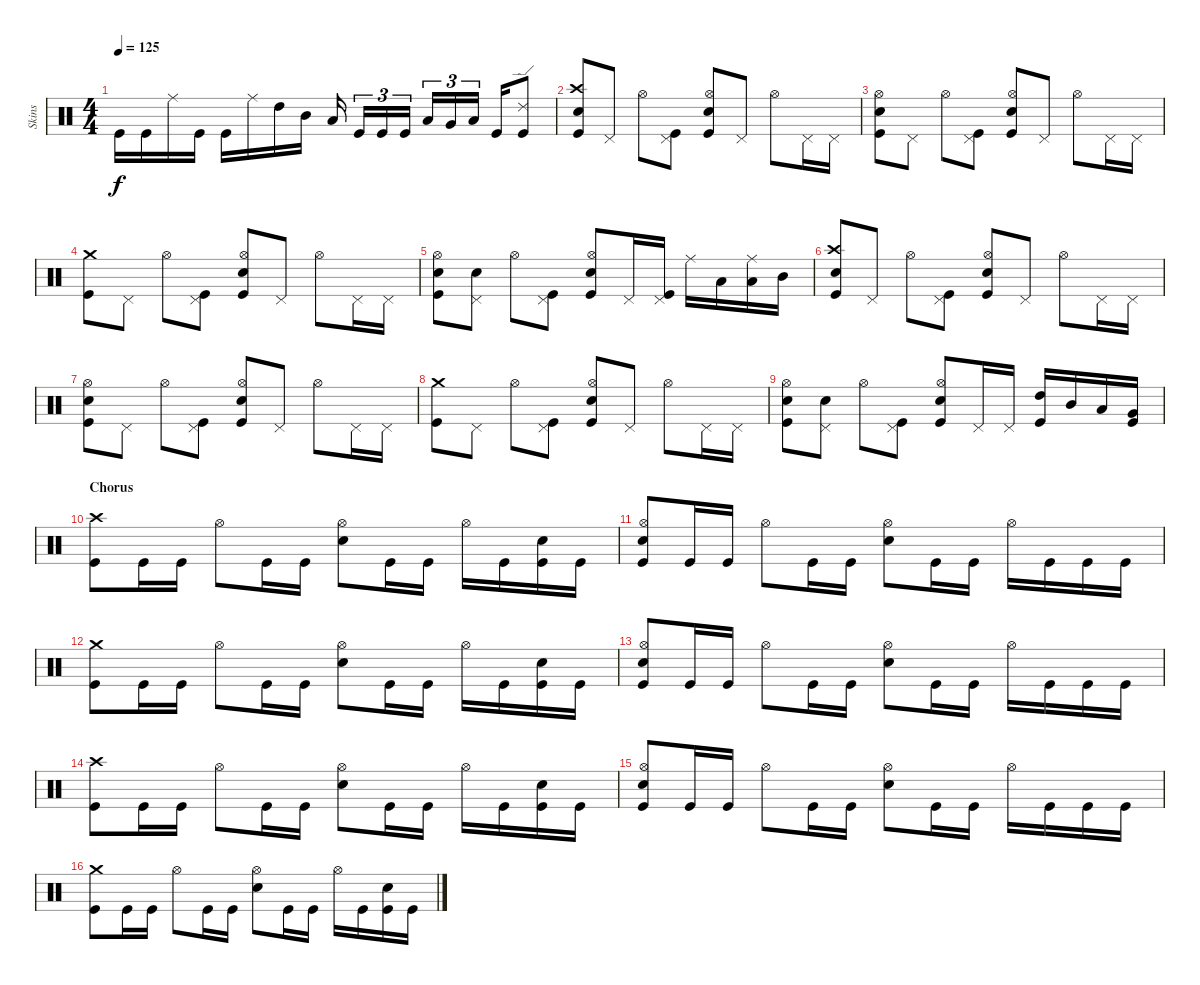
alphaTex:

\track ("Skins" "Skins") {instrument percussion}
\staff {score}
\articulation defaults
\ts (4 4)
\tempo 125
\clef neutral
\ks c "Kick (hit)".16{dy f} "Kick (hit)".16 "Ride (middle)".16 "Kick (hit)".16 "Kick (hit)".16 "Ride (middle)".16 "High Tom (hit)".16 "Mid Tom (hit)".16 "Low Tom (hit)".16 "Kick (hit)".16{tu (3 2)} "Kick (hit)".16{tu (3 2)} "Kick (hit)".16{tu (3 2)} "Low Tom (hit)".16{tu (3 2)} "Very Low Tom (hit)".16{tu (3 2)} "Low Floor Tom (hit)".16{tu (3 2)} "Kick (hit)".16
("Ride (edge) 2" "Kick (hit)").8 |
("Crash high (hit)" "Snare (hit) 2" "Kick (hit)").8 "Pedal Hi-Hat (hit)".8 "Hi-Hat (open)".8 ("Pedal Hi-Hat (hit)" "Kick (hit)").8 ("Hi-Hat (open)" "Electric Snare (hit)" "Kick (hit)").8 "Pedal Hi-Hat (hit)".8 "Hi-Hat (open)".8 "Pedal Hi-Hat (hit)".16 "Pedal Hi-Hat (hit)".16 |
("Hi-Hat (open)" "Snare (hit) 2" "Kick (hit)").8 "Pedal Hi-Hat (hit)".8 "Hi-Hat (open)".8 ("Pedal Hi-Hat (hit)" "Kick (hit)").8 ("Hi-Hat (open)" "Electric Snare (hit)" "Kick (hit)").8 "Pedal Hi-Hat (hit)".8 "Hi-Hat (open)".8 "Pedal Hi-Hat (hit)".16 "Pedal Hi-Hat (hit)".16 |
("Crash medium (hit)" "Kick (hit)").8 "Pedal Hi-Hat (hit)".8 "Hi-Hat (open)".8 ("Pedal Hi-Hat (hit)" "Kick (hit)").8 ("Hi-Hat (open)" "Electric Snare (hit)" "Kick (hit)").8 "Pedal Hi-Hat (hit)".8 "Hi-Hat (open)".8 "Pedal Hi-Hat (hit)".16 "Pedal Hi-Hat (hit)".16 |
("Hi-Hat (open)" "Snare (hit) 2" "Kick (hit)").8 ("Pedal Hi-Hat (hit)" "Snare (hit) 2").8 "Hi-Hat (open)".8 ("Pedal Hi-Hat (hit)" "Kick (hit)").8 ("Hi-Hat (open)" "Electric Snare (hit)" "Kick (hit)").8 "Pedal Hi-Hat (hit)".16 ("Pedal Hi-Hat (hit)" "Kick (hit)").16 "Ride (middle)".16 "Low Floor Tom (hit)".16 ("Ride (middle)" "Low Tom (hit)").16 "Mid Tom (hit)".16 |
("Crash high (hit)" "Snare (hit) 2" "Kick (hit)").8 "Pedal Hi-Hat (hit)".8 "Hi-Hat (open)".8 ("Pedal Hi-Hat (hit)" "Kick (hit)").8 ("Hi-Hat (open)" "Electric Snare (hit)" "Kick (hit)").8 "Pedal Hi-Hat (hit)".8 "Hi-Hat (open)".8 "Pedal Hi-Hat (hit)".16 "Pedal Hi-Hat (hit)".16 |
("Hi-Hat (open)" "Snare (hit) 2" "Kick (hit)").8 "Pedal Hi-Hat (hit)".8 "Hi-Hat (open)".8 ("Pedal Hi-Hat (hit)" "Kick (hit)").8 ("Hi-Hat (open)" "Electric Snare (hit)" "Kick (hit)").8 "Pedal Hi-Hat (hit)".8 "Hi-Hat (open)".8 "Pedal Hi-Hat (hit)".16 "Pedal Hi-Hat (hit)".16 |
("Crash medium (hit)" "Kick (hit)").8 "Pedal Hi-Hat (hit)".8 "Hi-Hat (open)".8 ("Pedal Hi-Hat (hit)" "Kick (hit)").8 ("Hi-Hat (open)" "Electric Snare (hit)" "Kick (hit)").8 "Pedal Hi-Hat (hit)".8 "Hi-Hat (open)".8 "Pedal Hi-Hat (hit)".16 "Pedal Hi-Hat (hit)".16 |
("Hi-Hat (open)" "Snare (hit) 2" "Kick (hit)").8 ("Pedal Hi-Hat (hit)" "Snare (hit) 2").8 "Hi-Hat (open)".8 ("Pedal Hi-Hat (hit)" "Kick (hit)").8 ("Hi-Hat (open)" "Electric Snare (hit)" "Kick (hit)").8 "Pedal Hi-Hat (hit)".16 "Pedal Hi-Hat (hit)".16 ("High Tom (hit)" "Kick (hit)").16 "Mid Tom (hit)".16 "Low Tom (hit)".16 ("Very Low Tom (hit)" "Kick (hit)").16 |
\section ("" "Chorus")
("Crash high (hit)" "Kick (hit)").8 "Kick (hit)".16 "Kick (hit)".16 "Hi-Hat (open)".8 "Kick (hit)".16 "Kick (hit)".16 ("Hi-Hat (open)" "Electric Snare (hit)").8 "Kick (hit)".16 "Kick (hit)".16 "Hi-Hat (open)".16 "Kick (hit)".16 ("Snare (hit) 2" "Kick (hit)").16 "Kick (hit)".16 |
("Hi-Hat (open)" "Electric Snare (hit)" "Kick (hit)").8 "Kick (hit)".16 "Kick (hit)".16 "Hi-Hat (open)".8 "Kick (hit)".16 "Kick (hit)".16 ("Hi-Hat (open)" "Electric Snare (hit)").8 "Kick (hit)".16 "Kick (hit)".16 "Hi-Hat (open)".16 "Kick (hit)".16 "Kick (hit)".16 "Kick (hit)".16 |
("Crash medium (hit)" "Kick (hit)").8 "Kick (hit)".16 "Kick (hit)".16 "Hi-Hat (open)".8 "Kick (hit)".16 "Kick (hit)".16 ("Hi-Hat (open)" "Electric Snare (hit)").8 "Kick (hit)".16 "Kick (hit)".16 "Hi-Hat (open)".16 "Kick (hit)".16 ("Snare (hit) 2" "Kick (hit)").16 "Kick (hit)".16 |
("Hi-Hat (open)" "Electric Snare (hit)" "Kick (hit)").8 "Kick (hit)".16 "Kick (hit)".16 "Hi-Hat (open)".8 "Kick (hit)".16 "Kick (hit)".16 ("Hi-Hat (open)" "Electric Snare (hit)").8 "Kick (hit)".16 "Kick (hit)".16 "Hi-Hat (open)".16 "Kick (hit)".16 "Kick (hit)".16 "Kick (hit)".16 |
("Crash high (hit)" "Kick (hit)").8 "Kick (hit)".16 "Kick (hit)".16 "Hi-Hat (open)".8 "Kick (hit)".16 "Kick (hit)".16 ("Hi-Hat (open)" "Electric Snare (hit)").8 "Kick (hit)".16 "Kick (hit)".16 "Hi-Hat (open)".16 "Kick (hit)".16 ("Snare (hit) 2" "Kick (hit)").16 "Kick (hit)".16 |
("Hi-Hat (open)" "Electric Snare (hit)" "Kick (hit)").8 "Kick (hit)".16 "Kick (hit)".16 "Hi-Hat (open)".8 "Kick (hit)".16 "Kick (hit)".16 ("Hi-Hat (open)" "Electric Snare (hit)").8 "Kick (hit)".16 "Kick (hit)".16 "Hi-Hat (open)".16 "Kick (hit)".16 "Kick (hit)".16 "Kick (hit)".16 |
("Crash medium (hit)" "Kick (hit)").8 "Kick (hit)".16 "Kick (hit)".16 "Hi-Hat (open)".8 "Kick (hit)".16 "Kick (hit)".16 ("Hi-Hat (open)" "Electric Snare (hit)").8 "Kick (hit)".16 "Kick (hit)".16 "Hi-Hat (open)".16 "Kick (hit)".16 ("Snare (hit) 2" "Kick (hit)").16 "Kick (hit)".16
